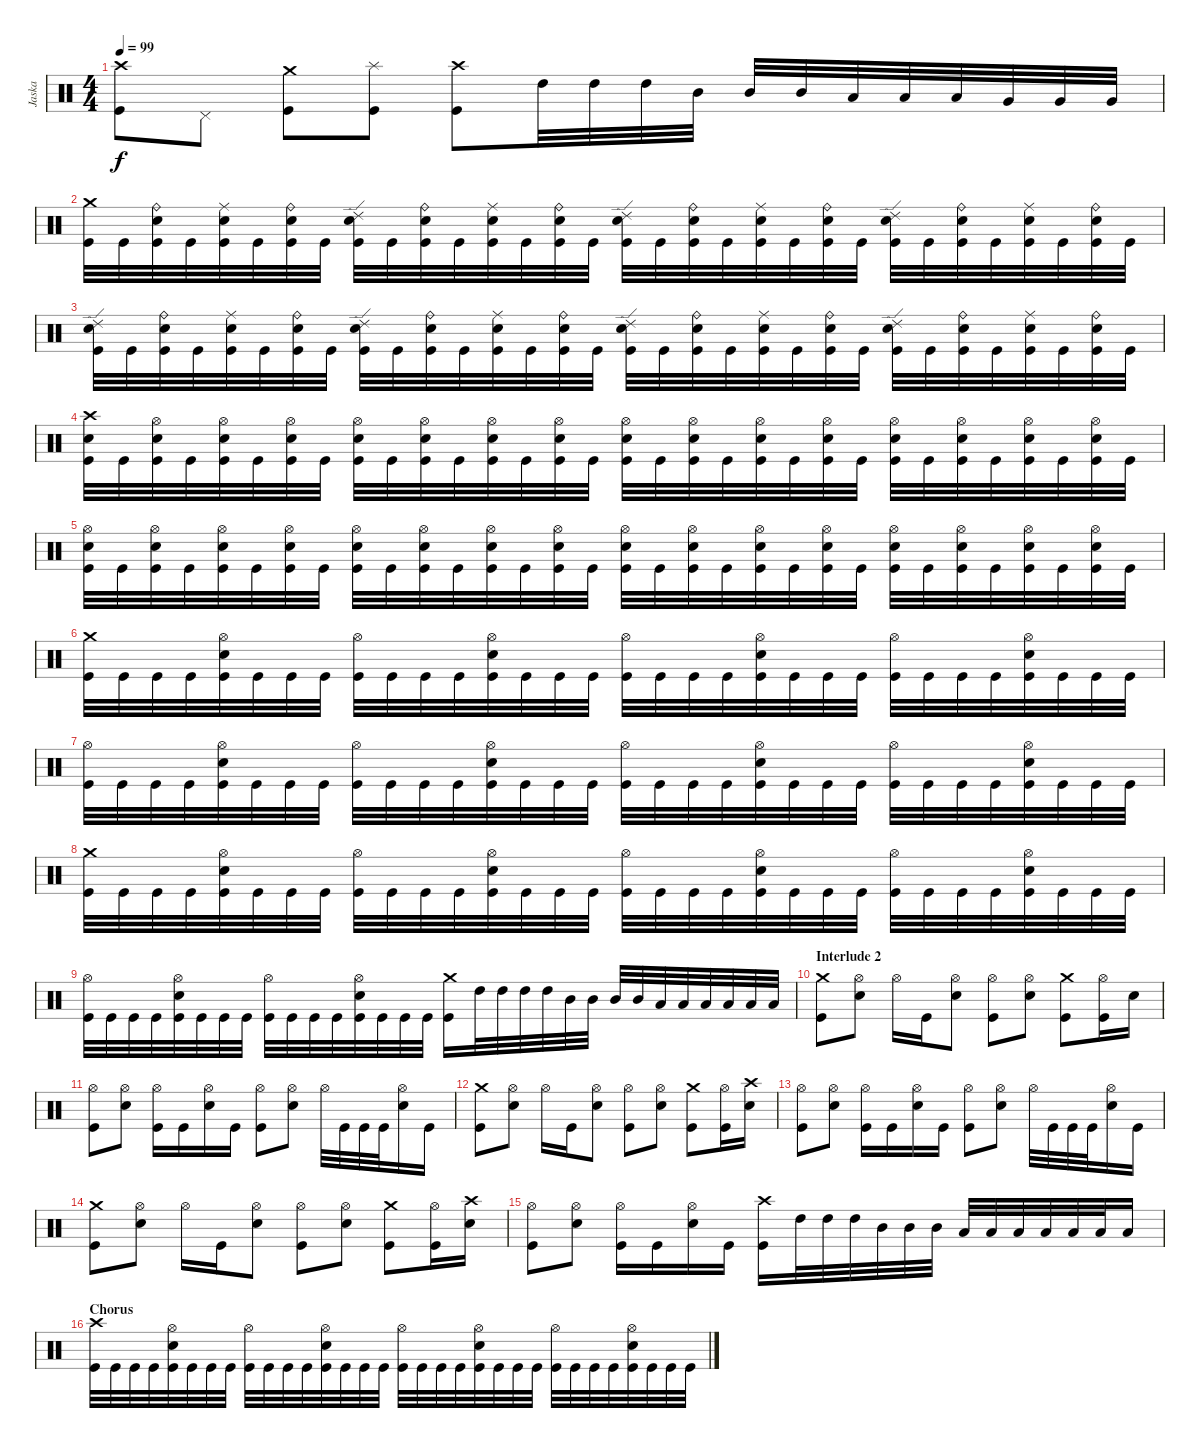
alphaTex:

\track ("Jaska" "Jaska") {instrument percussion}
\staff {score}
\articulation defaults
\ts (4 4)
\tempo 99
\clef neutral
\ks c
("Crash high (hit)" "Kick (hit)").8{dy f} "Pedal Hi-Hat (hit)".8 ("Crash medium (hit)" "Kick (hit)").8 ("Splash (hit)" "Kick (hit)").8 ("Crash high (hit)" "Kick (hit)").8 "High Tom (hit)".32 "High Tom (hit)".32 "High Tom (hit)".32 "Mid Tom (hit)".32 "Mid Tom (hit)".32 "Mid Tom (hit)".32 "Low Tom (hit)".32 "Low Tom (hit)".32 "Low Tom (hit)".32 "Very Low Tom (hit)".32 "Very Low Tom (hit)".32 "Very Low Tom (hit)".32 |
("Crash medium (hit)" "Kick (hit)").32 "Kick (hit)".32 ("Ride (bell)" "Electric Snare (hit)" "Kick (hit)").32 "Kick (hit)".32 ("Ride (middle)" "Electric Snare (hit)" "Kick (hit)").32 "Kick (hit)".32 ("Ride (bell)" "Electric Snare (hit)" "Kick (hit)").32 "Kick (hit)".32 ("Ride (edge) 2" "Electric Snare (hit)" "Kick (hit)").32 "Kick (hit)".32 ("Ride (bell)" "Electric Snare (hit)" "Kick (hit)").32 "Kick (hit)".32 ("Ride (middle)" "Electric Snare (hit)" "Kick (hit)").32 "Kick (hit)".32 ("Ride (bell)" "Electric Snare (hit)" "Kick (hit)").32 "Kick (hit)".32 ("Ride (edge) 2" "Electric Snare (hit)" "Kick (hit)").32 "Kick (hit)".32 ("Ride (bell)" "Electric Snare (hit)" "Kick (hit)").32 "Kick (hit)".32 ("Ride (middle)" "Electric Snare (hit)" "Kick (hit)").32 "Kick (hit)".32 ("Ride (bell)" "Electric Snare (hit)" "Kick (hit)").32 "Kick (hit)".32 ("Ride (edge) 2" "Electric Snare (hit)" "Kick (hit)").32 "Kick (hit)".32 ("Ride (bell)" "Electric Snare (hit)" "Kick (hit)").32 "Kick (hit)".32 ("Ride (middle)" "Electric Snare (hit)" "Kick (hit)").32 "Kick (hit)".32 ("Ride (bell)" "Electric Snare (hit)" "Kick (hit)").32 "Kick (hit)".32 |
("Ride (edge) 2" "Electric Snare (hit)" "Kick (hit)").32 "Kick (hit)".32 ("Ride (bell)" "Electric Snare (hit)" "Kick (hit)").32 "Kick (hit)".32 ("Ride (middle)" "Electric Snare (hit)" "Kick (hit)").32 "Kick (hit)".32 ("Ride (bell)" "Electric Snare (hit)" "Kick (hit)").32 "Kick (hit)".32 ("Ride (edge) 2" "Electric Snare (hit)" "Kick (hit)").32 "Kick (hit)".32 ("Ride (bell)" "Electric Snare (hit)" "Kick (hit)").32 "Kick (hit)".32 ("Ride (middle)" "Electric Snare (hit)" "Kick (hit)").32 "Kick (hit)".32 ("Ride (bell)" "Electric Snare (hit)" "Kick (hit)").32 "Kick (hit)".32 ("Ride (edge) 2" "Electric Snare (hit)" "Kick (hit)").32 "Kick (hit)".32 ("Ride (bell)" "Electric Snare (hit)" "Kick (hit)").32 "Kick (hit)".32 ("Ride (middle)" "Electric Snare (hit)" "Kick (hit)").32 "Kick (hit)".32 ("Ride (bell)" "Electric Snare (hit)" "Kick (hit)").32 "Kick (hit)".32 ("Ride (edge) 2" "Electric Snare (hit)" "Kick (hit)").32 "Kick (hit)".32 ("Ride (bell)" "Electric Snare (hit)" "Kick (hit)").32 "Kick (hit)".32 ("Ride (middle)" "Electric Snare (hit)" "Kick (hit)").32 "Kick (hit)".32 ("Ride (bell)" "Electric Snare (hit)" "Kick (hit)").32 "Kick (hit)".32 |
("Crash high (hit)" "Electric Snare (hit)" "Kick (hit)").32 "Kick (hit)".32 ("Hi-Hat (open)" "Electric Snare (hit)" "Kick (hit)").32 "Kick (hit)".32 ("Hi-Hat (open)" "Electric Snare (hit)" "Kick (hit)").32 "Kick (hit)".32 ("Hi-Hat (open)" "Electric Snare (hit)" "Kick (hit)").32 "Kick (hit)".32 ("Hi-Hat (open)" "Electric Snare (hit)" "Kick (hit)").32 "Kick (hit)".32 ("Hi-Hat (open)" "Electric Snare (hit)" "Kick (hit)").32 "Kick (hit)".32 ("Hi-Hat (open)" "Electric Snare (hit)" "Kick (hit)").32 "Kick (hit)".32 ("Hi-Hat (open)" "Electric Snare (hit)" "Kick (hit)").32 "Kick (hit)".32 ("Hi-Hat (open)" "Electric Snare (hit)" "Kick (hit)").32 "Kick (hit)".32 ("Hi-Hat (open)" "Electric Snare (hit)" "Kick (hit)").32 "Kick (hit)".32 ("Hi-Hat (open)" "Electric Snare (hit)" "Kick (hit)").32 "Kick (hit)".32 ("Hi-Hat (open)" "Electric Snare (hit)" "Kick (hit)").32 "Kick (hit)".32 ("Hi-Hat (open)" "Electric Snare (hit)" "Kick (hit)").32 "Kick (hit)".32 ("Hi-Hat (open)" "Electric Snare (hit)" "Kick (hit)").32 "Kick (hit)".32 ("Hi-Hat (open)" "Electric Snare (hit)" "Kick (hit)").32 "Kick (hit)".32 ("Hi-Hat (open)" "Electric Snare (hit)" "Kick (hit)").32 "Kick (hit)".32 |
("Hi-Hat (open)" "Electric Snare (hit)" "Kick (hit)").32 "Kick (hit)".32 ("Hi-Hat (open)" "Electric Snare (hit)" "Kick (hit)").32 "Kick (hit)".32 ("Hi-Hat (open)" "Electric Snare (hit)" "Kick (hit)").32 "Kick (hit)".32 ("Hi-Hat (open)" "Electric Snare (hit)" "Kick (hit)").32 "Kick (hit)".32 ("Hi-Hat (open)" "Electric Snare (hit)" "Kick (hit)").32 "Kick (hit)".32 ("Hi-Hat (open)" "Electric Snare (hit)" "Kick (hit)").32 "Kick (hit)".32 ("Hi-Hat (open)" "Electric Snare (hit)" "Kick (hit)").32 "Kick (hit)".32 ("Hi-Hat (open)" "Electric Snare (hit)" "Kick (hit)").32 "Kick (hit)".32 ("Hi-Hat (open)" "Electric Snare (hit)" "Kick (hit)").32 "Kick (hit)".32 ("Hi-Hat (open)" "Electric Snare (hit)" "Kick (hit)").32 "Kick (hit)".32 ("Hi-Hat (open)" "Electric Snare (hit)" "Kick (hit)").32 "Kick (hit)".32 ("Hi-Hat (open)" "Electric Snare (hit)" "Kick (hit)").32 "Kick (hit)".32 ("Hi-Hat (open)" "Electric Snare (hit)" "Kick (hit)").32 "Kick (hit)".32 ("Hi-Hat (open)" "Electric Snare (hit)" "Kick (hit)").32 "Kick (hit)".32 ("Hi-Hat (open)" "Electric Snare (hit)" "Kick (hit)").32 "Kick (hit)".32 ("Hi-Hat (open)" "Electric Snare (hit)" "Kick (hit)").32 "Kick (hit)".32 |
("Crash medium (hit)" "Kick (hit)").32 "Kick (hit)".32 "Kick (hit)".32 "Kick (hit)".32 ("Hi-Hat (open)" "Electric Snare (hit)" "Kick (hit)").32 "Kick (hit)".32 "Kick (hit)".32 "Kick (hit)".32 ("Hi-Hat (open)" "Kick (hit)").32 "Kick (hit)".32 "Kick (hit)".32 "Kick (hit)".32 ("Hi-Hat (open)" "Electric Snare (hit)" "Kick (hit)").32 "Kick (hit)".32 "Kick (hit)".32 "Kick (hit)".32 ("Hi-Hat (open)" "Kick (hit)").32 "Kick (hit)".32 "Kick (hit)".32 "Kick (hit)".32 ("Hi-Hat (open)" "Electric Snare (hit)" "Kick (hit)").32 "Kick (hit)".32 "Kick (hit)".32 "Kick (hit)".32 ("Hi-Hat (open)" "Kick (hit)").32 "Kick (hit)".32 "Kick (hit)".32 "Kick (hit)".32 ("Hi-Hat (open)" "Electric Snare (hit)" "Kick (hit)").32 "Kick (hit)".32 "Kick (hit)".32 "Kick (hit)".32 |
("Hi-Hat (open)" "Kick (hit)").32 "Kick (hit)".32 "Kick (hit)".32 "Kick (hit)".32 ("Hi-Hat (open)" "Electric Snare (hit)" "Kick (hit)").32 "Kick (hit)".32 "Kick (hit)".32 "Kick (hit)".32 ("Hi-Hat (open)" "Kick (hit)").32 "Kick (hit)".32 "Kick (hit)".32 "Kick (hit)".32 ("Hi-Hat (open)" "Electric Snare (hit)" "Kick (hit)").32 "Kick (hit)".32 "Kick (hit)".32 "Kick (hit)".32 ("Hi-Hat (open)" "Kick (hit)").32 "Kick (hit)".32 "Kick (hit)".32 "Kick (hit)".32 ("Hi-Hat (open)" "Electric Snare (hit)" "Kick (hit)").32 "Kick (hit)".32 "Kick (hit)".32 "Kick (hit)".32 ("Hi-Hat (open)" "Kick (hit)").32 "Kick (hit)".32 "Kick (hit)".32 "Kick (hit)".32 ("Hi-Hat (open)" "Electric Snare (hit)" "Kick (hit)").32 "Kick (hit)".32 "Kick (hit)".32 "Kick (hit)".32 |
("Crash medium (hit)" "Kick (hit)").32 "Kick (hit)".32 "Kick (hit)".32 "Kick (hit)".32 ("Hi-Hat (open)" "Electric Snare (hit)" "Kick (hit)").32 "Kick (hit)".32 "Kick (hit)".32 "Kick (hit)".32 ("Hi-Hat (open)" "Kick (hit)").32 "Kick (hit)".32 "Kick (hit)".32 "Kick (hit)".32 ("Hi-Hat (open)" "Electric Snare (hit)" "Kick (hit)").32 "Kick (hit)".32 "Kick (hit)".32 "Kick (hit)".32 ("Hi-Hat (open)" "Kick (hit)").32 "Kick (hit)".32 "Kick (hit)".32 "Kick (hit)".32 ("Hi-Hat (open)" "Electric Snare (hit)" "Kick (hit)").32 "Kick (hit)".32 "Kick (hit)".32 "Kick (hit)".32 ("Hi-Hat (open)" "Kick (hit)").32 "Kick (hit)".32 "Kick (hit)".32 "Kick (hit)".32 ("Hi-Hat (open)" "Electric Snare (hit)" "Kick (hit)").32 "Kick (hit)".32 "Kick (hit)".32 "Kick (hit)".32 |
("Hi-Hat (open)" "Kick (hit)").32 "Kick (hit)".32 "Kick (hit)".32 "Kick (hit)".32 ("Hi-Hat (open)" "Electric Snare (hit)" "Kick (hit)").32 "Kick (hit)".32 "Kick (hit)".32 "Kick (hit)".32 ("Hi-Hat (open)" "Kick (hit)").32 "Kick (hit)".32 "Kick (hit)".32 "Kick (hit)".32 ("Hi-Hat (open)" "Electric Snare (hit)" "Kick (hit)").32 "Kick (hit)".32 "Kick (hit)".32 "Kick (hit)".32 ("Crash medium (hit)" "Kick (hit)").16 "High Tom (hit)".32 "High Tom (hit)".32 "High Tom (hit)".32 "High Tom (hit)".32 "Mid Tom (hit)".32 "Mid Tom (hit)".32 "Mid Tom (hit)".32 "Mid Tom (hit)".32 "Low Tom (hit)".32 "Low Tom (hit)".32 "Low Floor Tom (hit)".32 "Low Floor Tom (hit)".32 "Low Floor Tom (hit)".32 "Low Floor Tom (hit)".32 |
\section ("" "Interlude 2")
("Crash medium (hit)" "Kick (hit)").8 ("Hi-Hat (open)" "Electric Snare (hit)").8 "Hi-Hat (open)".16 "Kick (hit)".16 ("Hi-Hat (open)" "Electric Snare (hit)").8 ("Hi-Hat (open)" "Kick (hit)").8 ("Hi-Hat (open)" "Electric Snare (hit)").8 ("Crash medium (hit)" "Kick (hit)").8 ("Hi-Hat (open)" "Kick (hit)").16 "Electric Snare (hit)".16 |
("Hi-Hat (open)" "Kick (hit)").8 ("Hi-Hat (open)" "Electric Snare (hit)").8 ("Hi-Hat (open)" "Kick (hit)").16 "Kick (hit)".16 ("Hi-Hat (open)" "Electric Snare (hit)").16 "Kick (hit)".16 ("Hi-Hat (open)" "Kick (hit)").8 ("Hi-Hat (open)" "Electric Snare (hit)").8 "Hi-Hat (open)".32 "Kick (hit)".32 "Kick (hit)".32 "Kick (hit)".32 ("Hi-Hat (open)" "Electric Snare (hit)").16 "Kick (hit)".16 |
("Crash medium (hit)" "Kick (hit)").8 ("Hi-Hat (open)" "Electric Snare (hit)").8 "Hi-Hat (open)".16 "Kick (hit)".16 ("Hi-Hat (open)" "Electric Snare (hit)").8 ("Hi-Hat (open)" "Kick (hit)").8 ("Hi-Hat (open)" "Electric Snare (hit)").8 ("Crash medium (hit)" "Kick (hit)").8 ("Hi-Hat (open)" "Kick (hit)").16 ("Crash high (hit)" "Electric Snare (hit)").16 |
("Hi-Hat (open)" "Kick (hit)").8 ("Hi-Hat (open)" "Electric Snare (hit)").8 ("Hi-Hat (open)" "Kick (hit)").16 "Kick (hit)".16 ("Hi-Hat (open)" "Electric Snare (hit)").16 "Kick (hit)".16 ("Hi-Hat (open)" "Kick (hit)").8 ("Hi-Hat (open)" "Electric Snare (hit)").8 "Hi-Hat (open)".32 "Kick (hit)".32 "Kick (hit)".32 "Kick (hit)".32 ("Hi-Hat (open)" "Electric Snare (hit)").16 "Kick (hit)".16 |
("Crash medium (hit)" "Kick (hit)").8 ("Hi-Hat (open)" "Electric Snare (hit)").8 "Hi-Hat (open)".16 "Kick (hit)".16 ("Hi-Hat (open)" "Electric Snare (hit)").8 ("Hi-Hat (open)" "Kick (hit)").8 ("Hi-Hat (open)" "Electric Snare (hit)").8 ("Crash medium (hit)" "Kick (hit)").8 ("Hi-Hat (open)" "Kick (hit)").16 ("Crash high (hit)" "Electric Snare (hit)").16 |
("Hi-Hat (open)" "Kick (hit)").8 ("Hi-Hat (open)" "Electric Snare (hit)").8 ("Hi-Hat (open)" "Kick (hit)").16 "Kick (hit)".16 ("Hi-Hat (open)" "Electric Snare (hit)").16 "Kick (hit)".16 ("Crash high (hit)" "Kick (hit)").16 "High Tom (hit)".32 "High Tom (hit)".32 "High Tom (hit)".32 "Mid Tom (hit)".32 "Mid Tom (hit)".32 "Mid Tom (hit)".32 "Low Tom (hit)".32 "Low Tom (hit)".32 "Low Tom (hit)".32 "Low Floor Tom (hit)".32 "Low Floor Tom (hit)".32 "Low Floor Tom (hit)".32 "Low Floor Tom (hit)".16 |
\section ("" "Chorus")
("Crash high (hit)" "Kick (hit)").32 "Kick (hit)".32 "Kick (hit)".32 "Kick (hit)".32 ("Hi-Hat (open)" "Electric Snare (hit)" "Kick (hit)").32 "Kick (hit)".32 "Kick (hit)".32 "Kick (hit)".32 ("Hi-Hat (open)" "Kick (hit)").32 "Kick (hit)".32 "Kick (hit)".32 "Kick (hit)".32 ("Hi-Hat (open)" "Electric Snare (hit)" "Kick (hit)").32 "Kick (hit)".32 "Kick (hit)".32 "Kick (hit)".32 ("Hi-Hat (open)" "Kick (hit)").32 "Kick (hit)".32 "Kick (hit)".32 "Kick (hit)".32 ("Hi-Hat (open)" "Electric Snare (hit)" "Kick (hit)").32 "Kick (hit)".32 "Kick (hit)".32 "Kick (hit)".32 ("Hi-Hat (open)" "Kick (hit)").32 "Kick (hit)".32 "Kick (hit)".32 "Kick (hit)".32 ("Hi-Hat (open)" "Electric Snare (hit)" "Kick (hit)").32 "Kick (hit)".32 "Kick (hit)".32 "Kick (hit)".32
